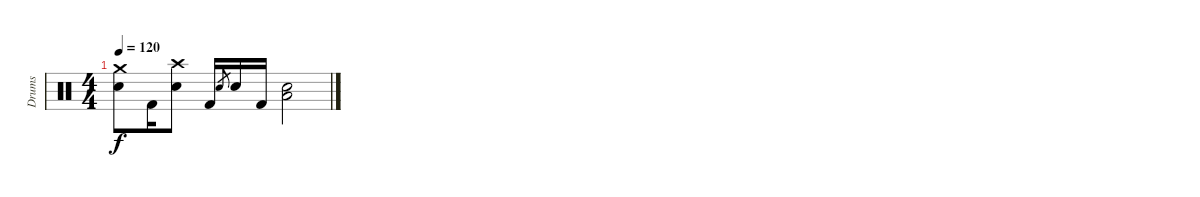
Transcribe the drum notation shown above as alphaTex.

\track ("Drums" "Drums") {instrument percussion}
\staff {score}
\articulation defaults
\ts (4 4)
\tempo 120
\clef neutral
\ks c
("Crash medium (hit)" "Snare (hit) 2").8{dy f} "Kick (hit) 2".16 ("Crash high (hit)" "Snare (hit) 2").8 "Kick (hit) 2".16 "Snare (hit) 2".8{gr} "Snare (hit) 2".16 "Kick (hit) 2".16 ("Low Floor Tom (hit)" "Snare (hit) 2").2
